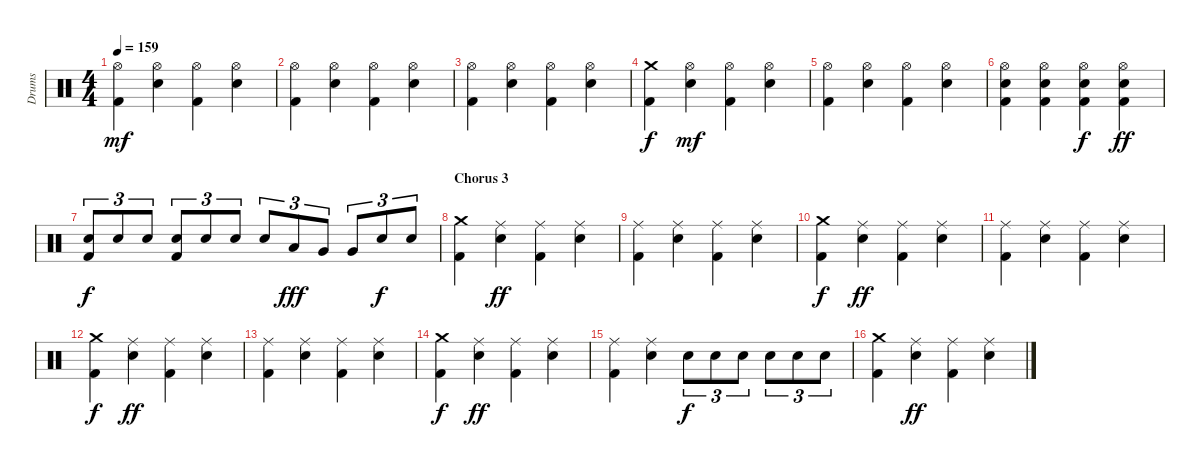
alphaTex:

\track ("Drums" "Drums") {instrument percussion}
\staff {score}
\articulation defaults
\ts (4 4)
\tempo 159
\clef neutral
\ks c
("Hi-Hat (open)" "Kick (hit) 2").4{dy mf} ("Hi-Hat (open)" "Snare (hit) 2").4 ("Hi-Hat (open)" "Kick (hit) 2").4 ("Hi-Hat (open)" "Snare (hit) 2").4 |
("Hi-Hat (open)" "Kick (hit) 2").4 ("Hi-Hat (open)" "Snare (hit) 2").4 ("Hi-Hat (open)" "Kick (hit) 2").4 ("Hi-Hat (open)" "Snare (hit) 2").4 |
("Hi-Hat (open)" "Kick (hit) 2").4 ("Hi-Hat (open)" "Snare (hit) 2").4 ("Hi-Hat (open)" "Kick (hit) 2").4 ("Hi-Hat (open)" "Snare (hit) 2").4 |
("Crash medium (hit)" "Kick (hit) 2").4{dy f} ("Hi-Hat (open)" "Snare (hit) 2").4{dy mf} ("Hi-Hat (open)" "Kick (hit) 2").4 ("Hi-Hat (open)" "Snare (hit) 2").4 |
("Hi-Hat (open)" "Kick (hit) 2").4 ("Hi-Hat (open)" "Snare (hit) 2").4 ("Hi-Hat (open)" "Kick (hit) 2").4 ("Hi-Hat (open)" "Snare (hit) 2").4 |
("Hi-Hat (open)" "Snare (hit) 2" "Kick (hit) 2").4 ("Hi-Hat (open)" "Snare (hit) 2" "Kick (hit) 2").4 ("Hi-Hat (open)" "Snare (hit) 2" "Kick (hit) 2").4{dy f} ("Hi-Hat (open)" "Snare (hit) 2" "Kick (hit) 2").4{dy ff} |
("Snare (hit) 2" "Kick (hit) 2").8{tu (3 2) dy f} "Snare (hit) 2".8{tu (3 2)} "Snare (hit) 2".8{tu (3 2)} ("Snare (hit) 2" "Kick (hit) 2").8{tu (3 2)} "Snare (hit) 2".8{tu (3 2)} "Snare (hit) 2".8{tu (3 2)} "Snare (hit) 2".8{tu (3 2)} "Low Tom (hit)".8{tu (3 2) dy fff} "Very Low Tom (hit)".8{tu (3 2)} "Very Low Tom (hit)".8{tu (3 2)} "Snare (hit) 2".8{tu (3 2) dy f} "Snare (hit) 2".8{tu (3 2)} |
\section ("" "Chorus 3")
("Crash medium (hit)" "Kick (hit) 2").4 ("Ride (middle)" "Snare (hit) 2").4{dy ff} ("Ride (middle)" "Kick (hit) 2").4 ("Ride (middle)" "Snare (hit) 2").4 |
("Ride (middle)" "Kick (hit) 2").4 ("Ride (middle)" "Snare (hit) 2").4 ("Ride (middle)" "Kick (hit) 2").4 ("Ride (middle)" "Snare (hit) 2").4 |
("Crash medium (hit)" "Kick (hit) 2").4{dy f} ("Ride (middle)" "Snare (hit) 2").4{dy ff} ("Ride (middle)" "Kick (hit) 2").4 ("Ride (middle)" "Snare (hit) 2").4 |
("Ride (middle)" "Kick (hit) 2").4 ("Ride (middle)" "Snare (hit) 2").4 ("Ride (middle)" "Kick (hit) 2").4 ("Ride (middle)" "Snare (hit) 2").4 |
("Crash medium (hit)" "Kick (hit) 2").4{dy f} ("Ride (middle)" "Snare (hit) 2").4{dy ff} ("Ride (middle)" "Kick (hit) 2").4 ("Ride (middle)" "Snare (hit) 2").4 |
("Ride (middle)" "Kick (hit) 2").4 ("Ride (middle)" "Snare (hit) 2").4 ("Ride (middle)" "Kick (hit) 2").4 ("Ride (middle)" "Snare (hit) 2").4 |
("Crash medium (hit)" "Kick (hit) 2").4{dy f} ("Ride (middle)" "Snare (hit) 2").4{dy ff} ("Ride (middle)" "Kick (hit) 2").4 ("Ride (middle)" "Snare (hit) 2").4 |
("Ride (middle)" "Kick (hit) 2").4 ("Ride (middle)" "Snare (hit) 2").4 "Snare (hit) 2".8{tu (3 2) dy f} "Snare (hit) 2".8{tu (3 2)} "Snare (hit) 2".8{tu (3 2)} "Snare (hit) 2".8{tu (3 2)} "Snare (hit) 2".8{tu (3 2)} "Snare (hit) 2".8{tu (3 2)} |
("Crash medium (hit)" "Kick (hit) 2").4 ("Ride (middle)" "Snare (hit) 2").4{dy ff} ("Ride (middle)" "Kick (hit) 2").4 ("Ride (middle)" "Snare (hit) 2").4
